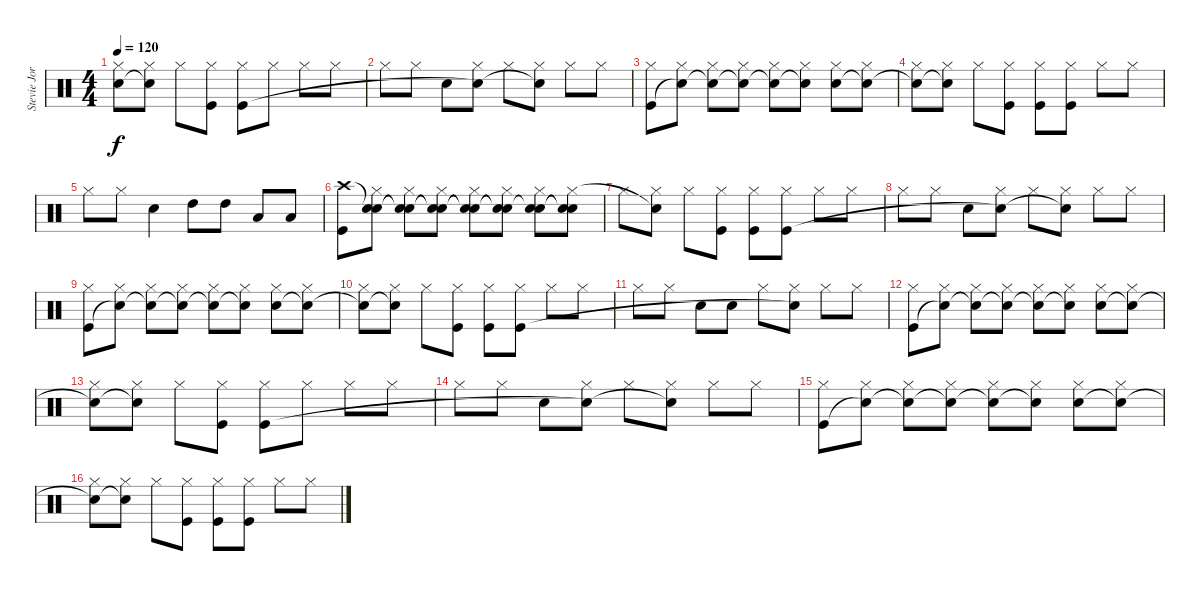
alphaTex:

\track ("Stevie Jordan" "Stevie Jor") {instrument percussion}
\staff {score}
\articulation defaults
\ts (4 4)
\tempo 120
\clef neutral
\ks c
("Hi-Hat (closed)" "Snare (hit)"{t}).8{dy f} ("Hi-Hat (closed)" "Snare (hit)"{t}).8 "Hi-Hat (closed)".8 ("Hi-Hat (closed)" "Kick (hit)").8 ("Hi-Hat (closed)" "Kick (hit)").8 "Hi-Hat (closed)".8 "Hi-Hat (closed)".8 "Hi-Hat (closed)".8 |
"Hi-Hat (closed)".8 "Hi-Hat (closed)".8 "Snare (hit) 2".8 ("Hi-Hat (closed)" "Snare (hit)"{t}).8 "Hi-Hat (closed)".8 ("Hi-Hat (closed)" "Snare (hit)"{t}).8 "Hi-Hat (closed)".8 "Hi-Hat (closed)".8 |
("Hi-Hat (closed)" "Kick (hit)").8 ("Hi-Hat (closed)" "Snare (hit)"{t}).8 ("Hi-Hat (closed)" "Snare (hit)"{t}).8 ("Hi-Hat (closed)" "Snare (hit)"{t}).8 ("Hi-Hat (closed)" "Snare (hit)"{t}).8 ("Hi-Hat (closed)" "Snare (hit)"{t}).8 ("Hi-Hat (closed)" "Snare (hit) 2").8 ("Hi-Hat (closed)" "Snare (hit)"{t}).8 |
("Hi-Hat (closed)" "Snare (hit)"{t}).8 ("Hi-Hat (closed)" "Snare (hit)"{t}).8 "Hi-Hat (closed)".8 ("Hi-Hat (closed)" "Kick (hit)").8 ("Hi-Hat (closed)" "Kick (hit)").8 ("Hi-Hat (closed)" "Kick (hit)").8 "Hi-Hat (closed)".8 "Hi-Hat (closed)".8 |
"Hi-Hat (closed)".8 "Hi-Hat (closed)".8 "Snare (hit) 2".4 "High Tom (hit)".8 "High Tom (hit)".8 "Low Tom (hit)".8 "Low Tom (hit)".8 |
("Crash high (hit)" "Kick (hit)").8 ("Snare (hit)"{t} "Hi-Hat (closed)" "Snare (hit)").8 ("Snare (hit)"{t} "Hi-Hat (closed)" "Snare (hit)"{t}).8 ("Snare (hit)"{t} "Hi-Hat (closed)" "Snare (hit)"{t}).8 ("Snare (hit)"{t} "Hi-Hat (closed)" "Snare (hit)"{t}).8 ("Snare (hit)"{t} "Hi-Hat (closed)" "Snare (hit)"{t}).8 ("Snare (hit)"{t} "Hi-Hat (closed)" "Snare (hit) 2").8 ("Snare (hit)"{t} "Hi-Hat (closed)" "Snare (hit)"{t}).8 |
"Hi-Hat (closed)".8 ("Hi-Hat (closed)" "Snare (hit)"{t}).8 "Hi-Hat (closed)".8 ("Hi-Hat (closed)" "Kick (hit)").8 ("Hi-Hat (closed)" "Kick (hit)").8 ("Hi-Hat (closed)" "Kick (hit)").8 "Hi-Hat (closed)".8 "Hi-Hat (closed)".8 |
"Hi-Hat (closed)".8 "Hi-Hat (closed)".8 "Snare (hit) 2".8 ("Hi-Hat (closed)" "Snare (hit)"{t}).8 "Hi-Hat (closed)".8 ("Hi-Hat (closed)" "Snare (hit)"{t}).8 "Hi-Hat (closed)".8 "Hi-Hat (closed)".8 |
("Hi-Hat (closed)" "Kick (hit)").8 ("Hi-Hat (closed)" "Snare (hit)"{t}).8 ("Hi-Hat (closed)" "Snare (hit)"{t}).8 ("Hi-Hat (closed)" "Snare (hit)"{t}).8 ("Hi-Hat (closed)" "Snare (hit)"{t}).8 ("Hi-Hat (closed)" "Snare (hit)"{t}).8 ("Hi-Hat (closed)" "Snare (hit) 2").8 ("Hi-Hat (closed)" "Snare (hit)"{t}).8 |
("Hi-Hat (closed)" "Snare (hit)"{t}).8 ("Hi-Hat (closed)" "Snare (hit)"{t}).8 "Hi-Hat (closed)".8 ("Hi-Hat (closed)" "Kick (hit)").8 ("Hi-Hat (closed)" "Kick (hit)").8 ("Hi-Hat (closed)" "Kick (hit)").8 "Hi-Hat (closed)".8 "Hi-Hat (closed)".8 |
"Hi-Hat (closed)".8 "Hi-Hat (closed)".8 "Snare (hit) 2".8 "Snare (hit) 2".8 "Hi-Hat (closed)".8 ("Hi-Hat (closed)" "Snare (hit)"{t}).8 "Hi-Hat (closed)".8 "Hi-Hat (closed)".8 |
("Hi-Hat (closed)" "Kick (hit)").8 ("Hi-Hat (closed)" "Snare (hit)"{t}).8 ("Hi-Hat (closed)" "Snare (hit)"{t}).8 ("Hi-Hat (closed)" "Snare (hit)"{t}).8 ("Hi-Hat (closed)" "Snare (hit)"{t}).8 ("Hi-Hat (closed)" "Snare (hit)"{t}).8 ("Hi-Hat (closed)" "Snare (hit) 2").8 ("Hi-Hat (closed)" "Snare (hit)"{t}).8 |
("Hi-Hat (closed)" "Snare (hit)"{t}).8 ("Hi-Hat (closed)" "Snare (hit)"{t}).8 "Hi-Hat (closed)".8 ("Hi-Hat (closed)" "Kick (hit)").8 ("Hi-Hat (closed)" "Kick (hit)").8 "Hi-Hat (closed)".8 "Hi-Hat (closed)".8 "Hi-Hat (closed)".8 |
"Hi-Hat (closed)".8 "Hi-Hat (closed)".8 "Snare (hit) 2".8 ("Hi-Hat (closed)" "Snare (hit)"{t}).8 "Hi-Hat (closed)".8 ("Hi-Hat (closed)" "Snare (hit)"{t}).8 "Hi-Hat (closed)".8 "Hi-Hat (closed)".8 |
("Hi-Hat (closed)" "Kick (hit)").8 ("Hi-Hat (closed)" "Snare (hit)"{t}).8 ("Hi-Hat (closed)" "Snare (hit)"{t}).8 ("Hi-Hat (closed)" "Snare (hit)"{t}).8 ("Hi-Hat (closed)" "Snare (hit)"{t}).8 ("Hi-Hat (closed)" "Snare (hit)"{t}).8 ("Hi-Hat (closed)" "Snare (hit) 2").8 ("Hi-Hat (closed)" "Snare (hit)"{t}).8 |
("Hi-Hat (closed)" "Snare (hit)"{t}).8 ("Hi-Hat (closed)" "Snare (hit)"{t}).8 "Hi-Hat (closed)".8 ("Hi-Hat (closed)" "Kick (hit)").8 ("Hi-Hat (closed)" "Kick (hit)").8 ("Hi-Hat (closed)" "Kick (hit)").8 "Hi-Hat (closed)".8 "Hi-Hat (closed)".8
